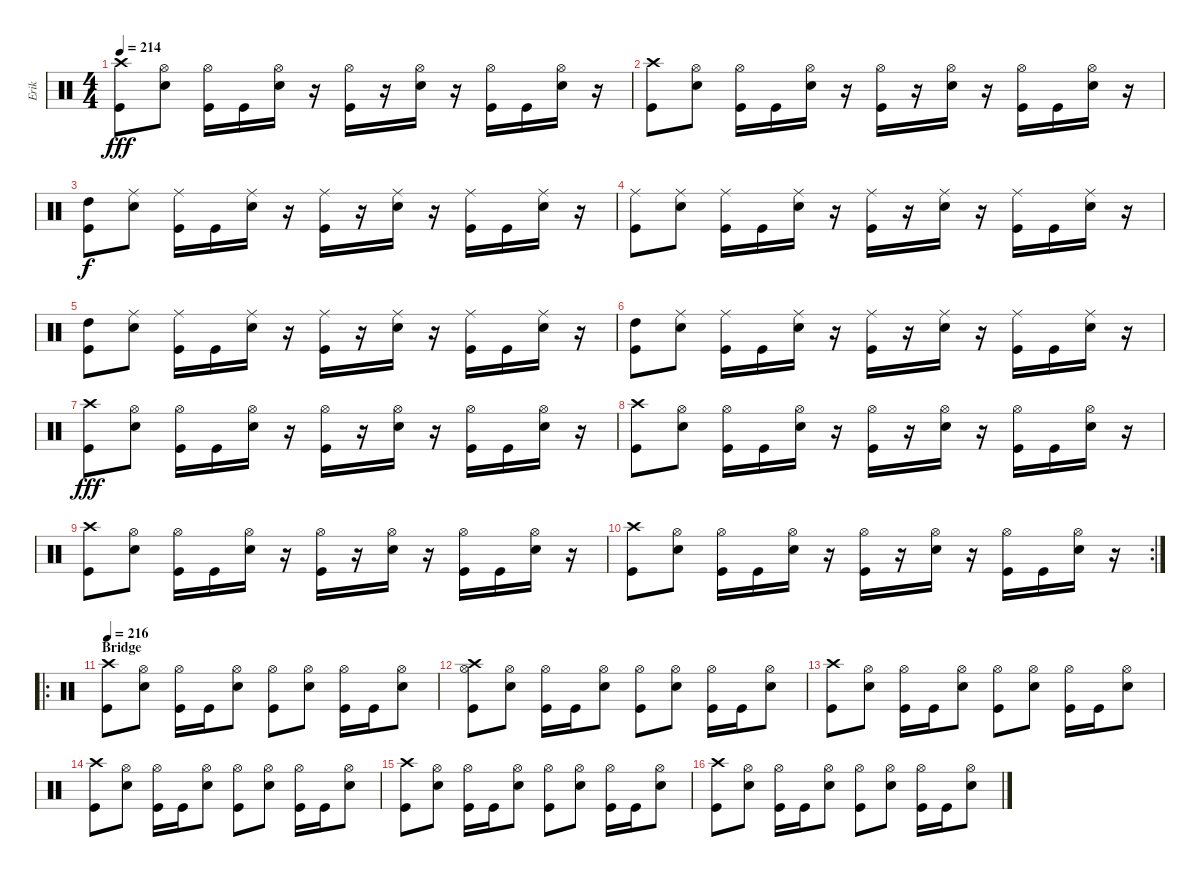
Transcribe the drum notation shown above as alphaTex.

\track ("Erik" "Erik") {instrument percussion}
\staff {score}
\articulation defaults
\ts (4 4)
\tempo 214
\clef neutral
\ks c
("Crash high (hit)" "Kick (hit)").8{dy fff} ("Electric Snare (hit)" "Hi-Hat (open)").8 ("Kick (hit)" "Hi-Hat (open)").16 "Kick (hit)".16 ("Electric Snare (hit)" "Hi-Hat (open)").16 r.16 ("Kick (hit)" "Hi-Hat (open)").16 r.16 ("Electric Snare (hit)" "Hi-Hat (open)").16 r.16 ("Kick (hit)" "Hi-Hat (open)").16 "Kick (hit)".16 ("Electric Snare (hit)" "Hi-Hat (open)").16 r.16 |
("Crash high (hit)" "Kick (hit)").8 ("Electric Snare (hit)" "Hi-Hat (open)").8 ("Kick (hit)" "Hi-Hat (open)").16 "Kick (hit)".16 ("Electric Snare (hit)" "Hi-Hat (open)").16 r.16 ("Kick (hit)" "Hi-Hat (open)").16 r.16 ("Electric Snare (hit)" "Hi-Hat (open)").16 r.16 ("Kick (hit)" "Hi-Hat (open)").16 "Kick (hit)".16 ("Electric Snare (hit)" "Hi-Hat (open)").16 r.16 |
("High Tom (hit)" "Kick (hit)").8{dy f} ("Snare (hit) 2" "Ride (middle)").8 ("Ride (middle)" "Kick (hit)").16 "Kick (hit)".16 ("Snare (hit) 2" "Ride (middle)").16 r.16 ("Ride (middle)" "Kick (hit)").16 r.16 ("Ride (middle)" "Snare (hit) 2").16 r.16 ("Ride (middle)" "Kick (hit)").16 "Kick (hit)".16 ("Ride (middle)" "Snare (hit) 2").16 r.16 |
("Ride (middle)" "Kick (hit)").8 ("Snare (hit) 2" "Ride (middle)").8 ("Ride (middle)" "Kick (hit)").16 "Kick (hit)".16 ("Snare (hit) 2" "Ride (middle)").16 r.16 ("Ride (middle)" "Kick (hit)").16 r.16 ("Ride (middle)" "Snare (hit) 2").16 r.16 ("Ride (middle)" "Kick (hit)").16 "Kick (hit)".16 ("Ride (middle)" "Snare (hit) 2").16 r.16 |
("High Tom (hit)" "Kick (hit)").8 ("Snare (hit) 2" "Ride (middle)").8 ("Ride (middle)" "Kick (hit)").16 "Kick (hit)".16 ("Snare (hit) 2" "Ride (middle)").16 r.16 ("Ride (middle)" "Kick (hit)").16 r.16 ("Ride (middle)" "Snare (hit) 2").16 r.16 ("Ride (middle)" "Kick (hit)").16 "Kick (hit)".16 ("Ride (middle)" "Snare (hit) 2").16 r.16 |
("High Tom (hit)" "Kick (hit)").8 ("Snare (hit) 2" "Ride (middle)").8 ("Ride (middle)" "Kick (hit)").16 "Kick (hit)".16 ("Snare (hit) 2" "Ride (middle)").16 r.16 ("Ride (middle)" "Kick (hit)").16 r.16 ("Ride (middle)" "Snare (hit) 2").16 r.16 ("Ride (middle)" "Kick (hit)").16 "Kick (hit)".16 ("Ride (middle)" "Snare (hit) 2").16 r.16 |
("Crash high (hit)" "Kick (hit)").8{dy fff} ("Electric Snare (hit)" "Hi-Hat (open)").8 ("Kick (hit)" "Hi-Hat (open)").16 "Kick (hit)".16 ("Electric Snare (hit)" "Hi-Hat (open)").16 r.16 ("Kick (hit)" "Hi-Hat (open)").16 r.16 ("Electric Snare (hit)" "Hi-Hat (open)").16 r.16 ("Kick (hit)" "Hi-Hat (open)").16 "Kick (hit)".16 ("Electric Snare (hit)" "Hi-Hat (open)").16 r.16 |
("Crash high (hit)" "Kick (hit)").8 ("Electric Snare (hit)" "Hi-Hat (open)").8 ("Kick (hit)" "Hi-Hat (open)").16 "Kick (hit)".16 ("Electric Snare (hit)" "Hi-Hat (open)").16 r.16 ("Kick (hit)" "Hi-Hat (open)").16 r.16 ("Electric Snare (hit)" "Hi-Hat (open)").16 r.16 ("Kick (hit)" "Hi-Hat (open)").16 "Kick (hit)".16 ("Electric Snare (hit)" "Hi-Hat (open)").16 r.16 |
("Crash high (hit)" "Kick (hit)").8 ("Electric Snare (hit)" "Hi-Hat (open)").8 ("Kick (hit)" "Hi-Hat (open)").16 "Kick (hit)".16 ("Electric Snare (hit)" "Hi-Hat (open)").16 r.16 ("Kick (hit)" "Hi-Hat (open)").16 r.16 ("Electric Snare (hit)" "Hi-Hat (open)").16 r.16 ("Kick (hit)" "Hi-Hat (open)").16 "Kick (hit)".16 ("Electric Snare (hit)" "Hi-Hat (open)").16 r.16 |
\rc 2
("Crash high (hit)" "Kick (hit)").8 ("Electric Snare (hit)" "Hi-Hat (open)").8 ("Kick (hit)" "Hi-Hat (open)").16 "Kick (hit)".16 ("Electric Snare (hit)" "Hi-Hat (open)").16 r.16 ("Kick (hit)" "Hi-Hat (open)").16 r.16 ("Electric Snare (hit)" "Hi-Hat (open)").16 r.16 ("Kick (hit)" "Hi-Hat (open)").16 "Kick (hit)".16 ("Electric Snare (hit)" "Hi-Hat (open)").16 r.16 |
\ro
\section ("" "Bridge")
\tempo 216
("Kick (hit)" "Crash high (hit)").8 ("Electric Snare (hit)" "Hi-Hat (open)").8 ("Kick (hit)" "Hi-Hat (open)").16 "Kick (hit)".16 ("Electric Snare (hit)" "Hi-Hat (open)").8 ("Kick (hit)" "Hi-Hat (open)").8 ("Electric Snare (hit)" "Hi-Hat (open)").8 ("Kick (hit)" "Hi-Hat (open)").16 "Kick (hit)".16 ("Electric Snare (hit)" "Hi-Hat (open)").8 |
("Kick (hit)" "Crash high (hit)" "Hi-Hat (open)").8 ("Electric Snare (hit)" "Hi-Hat (open)").8 ("Kick (hit)" "Hi-Hat (open)").16 "Kick (hit)".16 ("Electric Snare (hit)" "Hi-Hat (open)").8 ("Kick (hit)" "Hi-Hat (open)").8 ("Electric Snare (hit)" "Hi-Hat (open)").8 ("Kick (hit)" "Hi-Hat (open)").16 "Kick (hit)".16 ("Electric Snare (hit)" "Hi-Hat (open)").8 |
("Kick (hit)" "Crash high (hit)").8 ("Electric Snare (hit)" "Hi-Hat (open)").8 ("Kick (hit)" "Hi-Hat (open)").16 "Kick (hit)".16 ("Electric Snare (hit)" "Hi-Hat (open)").8 ("Kick (hit)" "Hi-Hat (open)").8 ("Electric Snare (hit)" "Hi-Hat (open)").8 ("Kick (hit)" "Hi-Hat (open)").16 "Kick (hit)".16 ("Electric Snare (hit)" "Hi-Hat (open)").8 |
("Kick (hit)" "Crash high (hit)").8 ("Electric Snare (hit)" "Hi-Hat (open)").8 ("Kick (hit)" "Hi-Hat (open)").16 "Kick (hit)".16 ("Electric Snare (hit)" "Hi-Hat (open)").8 ("Kick (hit)" "Hi-Hat (open)").8 ("Electric Snare (hit)" "Hi-Hat (open)").8 ("Kick (hit)" "Hi-Hat (open)").16 "Kick (hit)".16 ("Electric Snare (hit)" "Hi-Hat (open)").8 |
("Kick (hit)" "Crash high (hit)").8 ("Electric Snare (hit)" "Hi-Hat (open)").8 ("Kick (hit)" "Hi-Hat (open)").16 "Kick (hit)".16 ("Electric Snare (hit)" "Hi-Hat (open)").8 ("Kick (hit)" "Hi-Hat (open)").8 ("Electric Snare (hit)" "Hi-Hat (open)").8 ("Kick (hit)" "Hi-Hat (open)").16 "Kick (hit)".16 ("Electric Snare (hit)" "Hi-Hat (open)").8 |
("Kick (hit)" "Crash high (hit)").8 ("Electric Snare (hit)" "Hi-Hat (open)").8 ("Kick (hit)" "Hi-Hat (open)").16 "Kick (hit)".16 ("Electric Snare (hit)" "Hi-Hat (open)").8 ("Kick (hit)" "Hi-Hat (open)").8 ("Electric Snare (hit)" "Hi-Hat (open)").8 ("Kick (hit)" "Hi-Hat (open)").16 "Kick (hit)".16 ("Electric Snare (hit)" "Hi-Hat (open)").8
